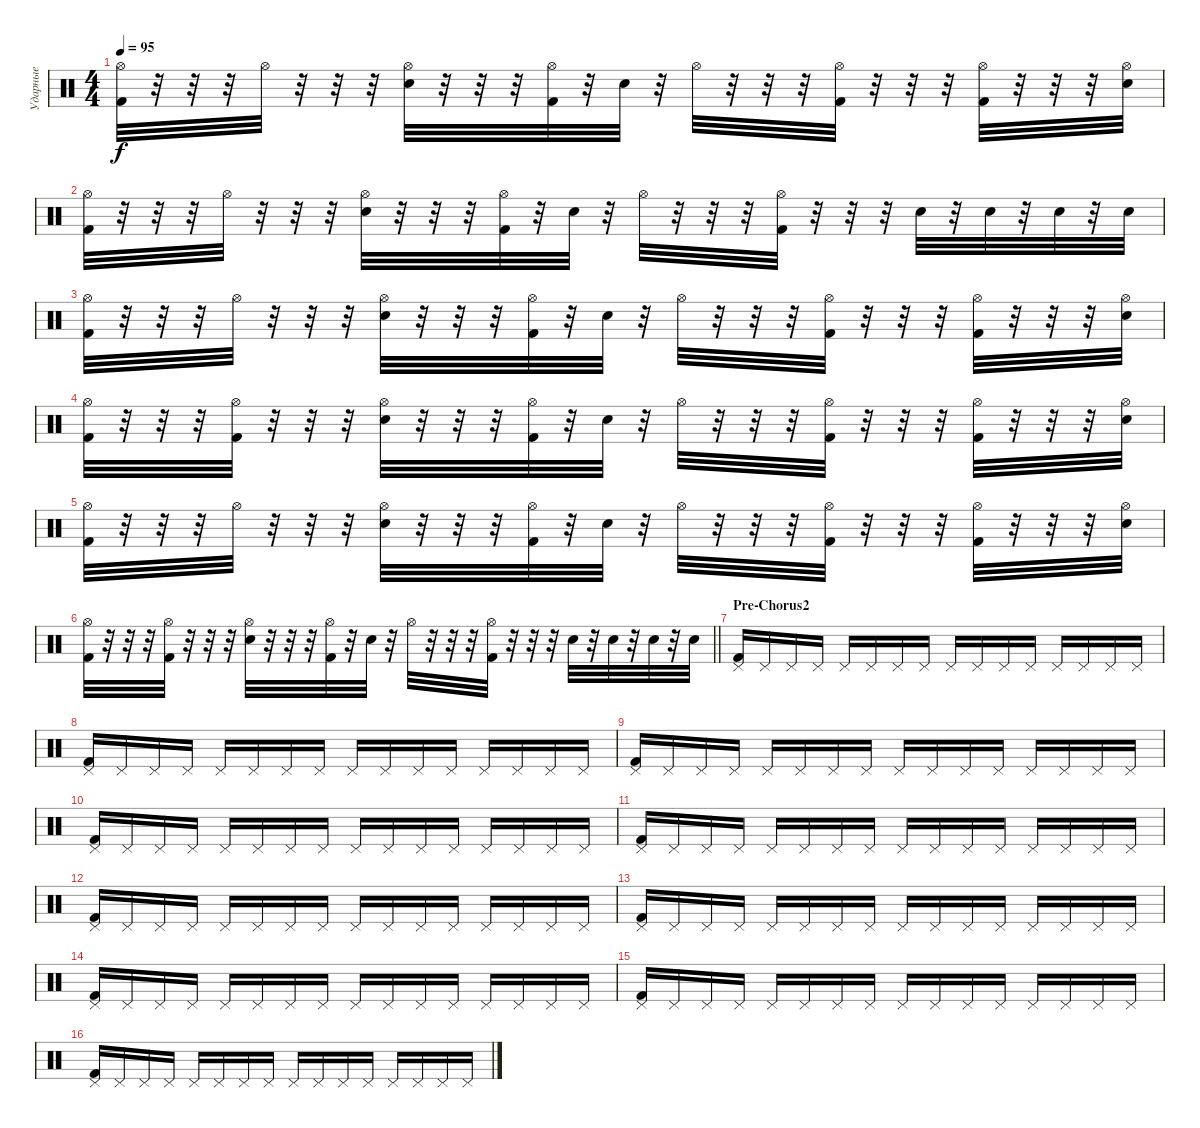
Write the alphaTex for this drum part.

\track ("Ударные" "Ударные") {instrument percussion}
\staff {score}
\articulation defaults
\ts (4 4)
\tempo 95
\clef neutral
\ks c
("Hi-Hat (open)" "Kick (hit) 2").32{dy f} r.32 r.32 r.32 "Hi-Hat (open)".32 r.32 r.32 r.32 ("Hi-Hat (open)" "Snare (hit) 2").32 r.32 r.32 r.32 ("Hi-Hat (open)" "Kick (hit) 2").32 r.32 "Snare (hit) 2".32 r.32 "Hi-Hat (open)".32 r.32 r.32 r.32 ("Hi-Hat (open)" "Kick (hit) 2").32 r.32 r.32 r.32 ("Hi-Hat (open)" "Kick (hit) 2").32 r.32 r.32 r.32 ("Hi-Hat (open)" "Snare (hit) 2").32 |
("Hi-Hat (open)" "Kick (hit) 2").32 r.32 r.32 r.32 "Hi-Hat (open)".32 r.32 r.32 r.32 ("Hi-Hat (open)" "Snare (hit) 2").32 r.32 r.32 r.32 ("Hi-Hat (open)" "Kick (hit) 2").32 r.32 "Snare (hit) 2".32 r.32 "Hi-Hat (open)".32 r.32 r.32 r.32 ("Hi-Hat (open)" "Kick (hit) 2").32 r.32 r.32 r.32 "Snare (hit) 2".32 r.32 "Snare (hit) 2".32 r.32 "Snare (hit) 2".32 r.32 "Snare (hit) 2".32 |
("Hi-Hat (open)" "Kick (hit) 2").32 r.32 r.32 r.32 "Hi-Hat (open)".32 r.32 r.32 r.32 ("Hi-Hat (open)" "Snare (hit) 2").32 r.32 r.32 r.32 ("Hi-Hat (open)" "Kick (hit) 2").32 r.32 "Snare (hit) 2".32 r.32 "Hi-Hat (open)".32 r.32 r.32 r.32 ("Hi-Hat (open)" "Kick (hit) 2").32 r.32 r.32 r.32 ("Hi-Hat (open)" "Kick (hit) 2").32 r.32 r.32 r.32 ("Hi-Hat (open)" "Snare (hit) 2").32 |
("Hi-Hat (open)" "Kick (hit) 2").32 r.32 r.32 r.32 ("Hi-Hat (open)" "Kick (hit) 2").32 r.32 r.32 r.32 ("Hi-Hat (open)" "Snare (hit) 2").32 r.32 r.32 r.32 ("Hi-Hat (open)" "Kick (hit) 2").32 r.32 "Snare (hit) 2".32 r.32 "Hi-Hat (open)".32 r.32 r.32 r.32 ("Hi-Hat (open)" "Kick (hit) 2").32 r.32 r.32 r.32 ("Hi-Hat (open)" "Kick (hit) 2").32 r.32 r.32 r.32 ("Hi-Hat (open)" "Snare (hit) 2").32 |
("Hi-Hat (open)" "Kick (hit) 2").32 r.32 r.32 r.32 "Hi-Hat (open)".32 r.32 r.32 r.32 ("Hi-Hat (open)" "Snare (hit) 2").32 r.32 r.32 r.32 ("Hi-Hat (open)" "Kick (hit) 2").32 r.32 "Snare (hit) 2".32 r.32 "Hi-Hat (open)".32 r.32 r.32 r.32 ("Hi-Hat (open)" "Kick (hit) 2").32 r.32 r.32 r.32 ("Hi-Hat (open)" "Kick (hit) 2").32 r.32 r.32 r.32 ("Hi-Hat (open)" "Snare (hit) 2").32 |
\barLineRight lightlight
("Hi-Hat (open)" "Kick (hit) 2").32 r.32 r.32 r.32 ("Hi-Hat (open)" "Kick (hit) 2").32 r.32 r.32 r.32 ("Hi-Hat (open)" "Snare (hit) 2").32 r.32 r.32 r.32 ("Hi-Hat (open)" "Kick (hit) 2").32 r.32 "Snare (hit) 2".32 r.32 "Hi-Hat (open)".32 r.32 r.32 r.32 ("Hi-Hat (open)" "Kick (hit) 2").32 r.32 r.32 r.32 "Snare (hit) 2".32 r.32 "Snare (hit) 2".32 r.32 "Snare (hit) 2".32 r.32 "Snare (hit) 2".32 |
\section ("" "Pre-Chorus2")
("Pedal Hi-Hat (hit)" "Kick (hit) 2").16 "Pedal Hi-Hat (hit)".16 "Pedal Hi-Hat (hit)".16 "Pedal Hi-Hat (hit)".16 "Pedal Hi-Hat (hit)".16 "Pedal Hi-Hat (hit)".16 "Pedal Hi-Hat (hit)".16 "Pedal Hi-Hat (hit)".16 "Pedal Hi-Hat (hit)".16 "Pedal Hi-Hat (hit)".16 "Pedal Hi-Hat (hit)".16 "Pedal Hi-Hat (hit)".16 "Pedal Hi-Hat (hit)".16 "Pedal Hi-Hat (hit)".16 "Pedal Hi-Hat (hit)".16 "Pedal Hi-Hat (hit)".16 |
("Pedal Hi-Hat (hit)" "Kick (hit) 2").16 "Pedal Hi-Hat (hit)".16 "Pedal Hi-Hat (hit)".16 "Pedal Hi-Hat (hit)".16 "Pedal Hi-Hat (hit)".16 "Pedal Hi-Hat (hit)".16 "Pedal Hi-Hat (hit)".16 "Pedal Hi-Hat (hit)".16 "Pedal Hi-Hat (hit)".16 "Pedal Hi-Hat (hit)".16 "Pedal Hi-Hat (hit)".16 "Pedal Hi-Hat (hit)".16 "Pedal Hi-Hat (hit)".16 "Pedal Hi-Hat (hit)".16 "Pedal Hi-Hat (hit)".16 "Pedal Hi-Hat (hit)".16 |
("Pedal Hi-Hat (hit)" "Kick (hit) 2").16 "Pedal Hi-Hat (hit)".16 "Pedal Hi-Hat (hit)".16 "Pedal Hi-Hat (hit)".16 "Pedal Hi-Hat (hit)".16 "Pedal Hi-Hat (hit)".16 "Pedal Hi-Hat (hit)".16 "Pedal Hi-Hat (hit)".16 "Pedal Hi-Hat (hit)".16 "Pedal Hi-Hat (hit)".16 "Pedal Hi-Hat (hit)".16 "Pedal Hi-Hat (hit)".16 "Pedal Hi-Hat (hit)".16 "Pedal Hi-Hat (hit)".16 "Pedal Hi-Hat (hit)".16 "Pedal Hi-Hat (hit)".16 |
("Pedal Hi-Hat (hit)" "Kick (hit) 2").16 "Pedal Hi-Hat (hit)".16 "Pedal Hi-Hat (hit)".16 "Pedal Hi-Hat (hit)".16 "Pedal Hi-Hat (hit)".16 "Pedal Hi-Hat (hit)".16 "Pedal Hi-Hat (hit)".16 "Pedal Hi-Hat (hit)".16 "Pedal Hi-Hat (hit)".16 "Pedal Hi-Hat (hit)".16 "Pedal Hi-Hat (hit)".16 "Pedal Hi-Hat (hit)".16 "Pedal Hi-Hat (hit)".16 "Pedal Hi-Hat (hit)".16 "Pedal Hi-Hat (hit)".16 "Pedal Hi-Hat (hit)".16 |
("Pedal Hi-Hat (hit)" "Kick (hit) 2").16 "Pedal Hi-Hat (hit)".16 "Pedal Hi-Hat (hit)".16 "Pedal Hi-Hat (hit)".16 "Pedal Hi-Hat (hit)".16 "Pedal Hi-Hat (hit)".16 "Pedal Hi-Hat (hit)".16 "Pedal Hi-Hat (hit)".16 "Pedal Hi-Hat (hit)".16 "Pedal Hi-Hat (hit)".16 "Pedal Hi-Hat (hit)".16 "Pedal Hi-Hat (hit)".16 "Pedal Hi-Hat (hit)".16 "Pedal Hi-Hat (hit)".16 "Pedal Hi-Hat (hit)".16 "Pedal Hi-Hat (hit)".16 |
("Pedal Hi-Hat (hit)" "Kick (hit) 2").16 "Pedal Hi-Hat (hit)".16 "Pedal Hi-Hat (hit)".16 "Pedal Hi-Hat (hit)".16 "Pedal Hi-Hat (hit)".16 "Pedal Hi-Hat (hit)".16 "Pedal Hi-Hat (hit)".16 "Pedal Hi-Hat (hit)".16 "Pedal Hi-Hat (hit)".16 "Pedal Hi-Hat (hit)".16 "Pedal Hi-Hat (hit)".16 "Pedal Hi-Hat (hit)".16 "Pedal Hi-Hat (hit)".16 "Pedal Hi-Hat (hit)".16 "Pedal Hi-Hat (hit)".16 "Pedal Hi-Hat (hit)".16 |
("Pedal Hi-Hat (hit)" "Kick (hit) 2").16 "Pedal Hi-Hat (hit)".16 "Pedal Hi-Hat (hit)".16 "Pedal Hi-Hat (hit)".16 "Pedal Hi-Hat (hit)".16 "Pedal Hi-Hat (hit)".16 "Pedal Hi-Hat (hit)".16 "Pedal Hi-Hat (hit)".16 "Pedal Hi-Hat (hit)".16 "Pedal Hi-Hat (hit)".16 "Pedal Hi-Hat (hit)".16 "Pedal Hi-Hat (hit)".16 "Pedal Hi-Hat (hit)".16 "Pedal Hi-Hat (hit)".16 "Pedal Hi-Hat (hit)".16 "Pedal Hi-Hat (hit)".16 |
("Pedal Hi-Hat (hit)" "Kick (hit) 2").16 "Pedal Hi-Hat (hit)".16 "Pedal Hi-Hat (hit)".16 "Pedal Hi-Hat (hit)".16 "Pedal Hi-Hat (hit)".16 "Pedal Hi-Hat (hit)".16 "Pedal Hi-Hat (hit)".16 "Pedal Hi-Hat (hit)".16 "Pedal Hi-Hat (hit)".16 "Pedal Hi-Hat (hit)".16 "Pedal Hi-Hat (hit)".16 "Pedal Hi-Hat (hit)".16 "Pedal Hi-Hat (hit)".16 "Pedal Hi-Hat (hit)".16 "Pedal Hi-Hat (hit)".16 "Pedal Hi-Hat (hit)".16 |
("Pedal Hi-Hat (hit)" "Kick (hit) 2").16 "Pedal Hi-Hat (hit)".16 "Pedal Hi-Hat (hit)".16 "Pedal Hi-Hat (hit)".16 "Pedal Hi-Hat (hit)".16 "Pedal Hi-Hat (hit)".16 "Pedal Hi-Hat (hit)".16 "Pedal Hi-Hat (hit)".16 "Pedal Hi-Hat (hit)".16 "Pedal Hi-Hat (hit)".16 "Pedal Hi-Hat (hit)".16 "Pedal Hi-Hat (hit)".16 "Pedal Hi-Hat (hit)".16 "Pedal Hi-Hat (hit)".16 "Pedal Hi-Hat (hit)".16 "Pedal Hi-Hat (hit)".16 |
("Pedal Hi-Hat (hit)" "Kick (hit) 2").16 "Pedal Hi-Hat (hit)".16 "Pedal Hi-Hat (hit)".16 "Pedal Hi-Hat (hit)".16 "Pedal Hi-Hat (hit)".16 "Pedal Hi-Hat (hit)".16 "Pedal Hi-Hat (hit)".16 "Pedal Hi-Hat (hit)".16 "Pedal Hi-Hat (hit)".16 "Pedal Hi-Hat (hit)".16 "Pedal Hi-Hat (hit)".16 "Pedal Hi-Hat (hit)".16 "Pedal Hi-Hat (hit)".16 "Pedal Hi-Hat (hit)".16 "Pedal Hi-Hat (hit)".16 "Pedal Hi-Hat (hit)".16
